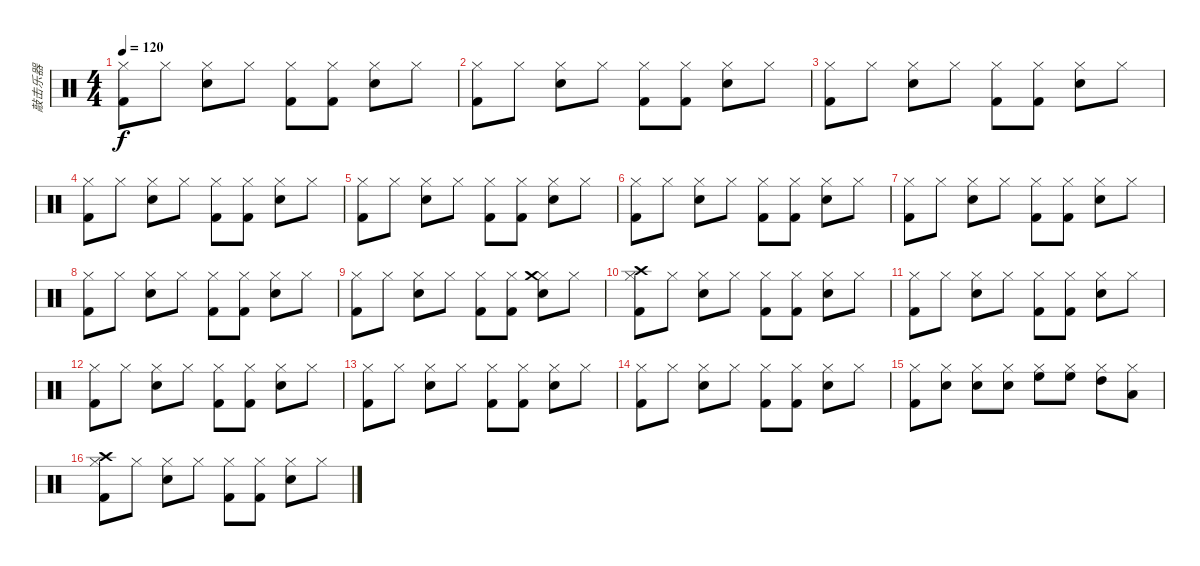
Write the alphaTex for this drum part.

\track ("敲击乐器" "敲击乐器") {instrument percussion}
\staff {score}
\articulation defaults
\ts (4 4)
\tempo 120
\clef neutral
\ks c
("Kick (hit) 2" "Hi-Hat (closed)").8{dy f} "Hi-Hat (closed)".8 ("Electric Snare (hit)" "Hi-Hat (closed)").8 "Hi-Hat (closed)".8 ("Kick (hit) 2" "Hi-Hat (closed)").8 ("Hi-Hat (closed)" "Kick (hit) 2").8 ("Electric Snare (hit)" "Hi-Hat (closed)").8 "Hi-Hat (closed)".8 |
("Kick (hit) 2" "Hi-Hat (closed)").8 "Hi-Hat (closed)".8 ("Electric Snare (hit)" "Hi-Hat (closed)").8 "Hi-Hat (closed)".8 ("Kick (hit) 2" "Hi-Hat (closed)").8 ("Hi-Hat (closed)" "Kick (hit) 2").8 ("Electric Snare (hit)" "Hi-Hat (closed)").8 "Hi-Hat (closed)".8 |
("Kick (hit) 2" "Hi-Hat (closed)").8 "Hi-Hat (closed)".8 ("Electric Snare (hit)" "Hi-Hat (closed)").8 "Hi-Hat (closed)".8 ("Kick (hit) 2" "Hi-Hat (closed)").8 ("Hi-Hat (closed)" "Kick (hit) 2").8 ("Electric Snare (hit)" "Hi-Hat (closed)").8 "Hi-Hat (closed)".8 |
("Kick (hit) 2" "Hi-Hat (closed)").8 "Hi-Hat (closed)".8 ("Electric Snare (hit)" "Hi-Hat (closed)").8 "Hi-Hat (closed)".8 ("Kick (hit) 2" "Hi-Hat (closed)").8 ("Hi-Hat (closed)" "Kick (hit) 2").8 ("Electric Snare (hit)" "Hi-Hat (closed)").8 "Hi-Hat (closed)".8 |
("Kick (hit) 2" "Hi-Hat (closed)").8 "Hi-Hat (closed)".8 ("Electric Snare (hit)" "Hi-Hat (closed)").8 "Hi-Hat (closed)".8 ("Kick (hit) 2" "Hi-Hat (closed)").8 ("Hi-Hat (closed)" "Kick (hit) 2").8 ("Electric Snare (hit)" "Hi-Hat (closed)").8 "Hi-Hat (closed)".8 |
("Kick (hit) 2" "Hi-Hat (closed)").8 "Hi-Hat (closed)".8 ("Electric Snare (hit)" "Hi-Hat (closed)").8 "Hi-Hat (closed)".8 ("Kick (hit) 2" "Hi-Hat (closed)").8 ("Hi-Hat (closed)" "Kick (hit) 2").8 ("Electric Snare (hit)" "Hi-Hat (closed)").8 "Hi-Hat (closed)".8 |
("Kick (hit) 2" "Hi-Hat (closed)").8 "Hi-Hat (closed)".8 ("Electric Snare (hit)" "Hi-Hat (closed)").8 "Hi-Hat (closed)".8 ("Kick (hit) 2" "Hi-Hat (closed)").8 ("Hi-Hat (closed)" "Kick (hit) 2").8 ("Electric Snare (hit)" "Hi-Hat (closed)").8 "Hi-Hat (closed)".8 |
("Kick (hit) 2" "Hi-Hat (closed)").8 "Hi-Hat (closed)".8 ("Electric Snare (hit)" "Hi-Hat (closed)").8 "Hi-Hat (closed)".8 ("Kick (hit) 2" "Hi-Hat (closed)").8 ("Hi-Hat (closed)" "Kick (hit) 2").8 ("Electric Snare (hit)" "Hi-Hat (closed)").8 "Hi-Hat (closed)".8 |
("Kick (hit) 2" "Hi-Hat (closed)").8 "Hi-Hat (closed)".8 ("Electric Snare (hit)" "Hi-Hat (closed)").8 "Hi-Hat (closed)".8 ("Kick (hit) 2" "Hi-Hat (closed)").8 ("Hi-Hat (closed)" "Kick (hit) 2").8 ("Electric Snare (hit)" "Hi-Hat (closed)" "Crash medium (hit)").8 "Hi-Hat (closed)".8 |
("Kick (hit) 2" "Crash high (hit)" "Hi-Hat (closed)").8 "Hi-Hat (closed)".8 ("Electric Snare (hit)" "Hi-Hat (closed)").8 "Hi-Hat (closed)".8 ("Kick (hit) 2" "Hi-Hat (closed)").8 ("Hi-Hat (closed)" "Kick (hit) 2").8 ("Electric Snare (hit)" "Hi-Hat (closed)").8 "Hi-Hat (closed)".8 |
("Kick (hit) 2" "Hi-Hat (closed)").8 "Hi-Hat (closed)".8 ("Electric Snare (hit)" "Hi-Hat (closed)").8 "Hi-Hat (closed)".8 ("Kick (hit) 2" "Hi-Hat (closed)").8 ("Hi-Hat (closed)" "Kick (hit) 2").8 ("Electric Snare (hit)" "Hi-Hat (closed)").8 "Hi-Hat (closed)".8 |
("Kick (hit) 2" "Hi-Hat (closed)").8 "Hi-Hat (closed)".8 ("Electric Snare (hit)" "Hi-Hat (closed)").8 "Hi-Hat (closed)".8 ("Kick (hit) 2" "Hi-Hat (closed)").8 ("Hi-Hat (closed)" "Kick (hit) 2").8 ("Electric Snare (hit)" "Hi-Hat (closed)").8 "Hi-Hat (closed)".8 |
("Kick (hit) 2" "Hi-Hat (closed)").8 "Hi-Hat (closed)".8 ("Electric Snare (hit)" "Hi-Hat (closed)").8 "Hi-Hat (closed)".8 ("Kick (hit) 2" "Hi-Hat (closed)").8 ("Hi-Hat (closed)" "Kick (hit) 2").8 ("Electric Snare (hit)" "Hi-Hat (closed)").8 "Hi-Hat (closed)".8 |
("Kick (hit) 2" "Hi-Hat (closed)").8 "Hi-Hat (closed)".8 ("Electric Snare (hit)" "Hi-Hat (closed)").8 "Hi-Hat (closed)".8 ("Kick (hit) 2" "Hi-Hat (closed)").8 ("Hi-Hat (closed)" "Kick (hit) 2").8 ("Electric Snare (hit)" "Hi-Hat (closed)").8 "Hi-Hat (closed)".8 |
("Kick (hit) 2" "Hi-Hat (closed)").8 ("Hi-Hat (closed)" "Electric Snare (hit)").8 ("Electric Snare (hit)" "Hi-Hat (closed)").8 ("Hi-Hat (closed)" "Electric Snare (hit)").8 ("High Floor Tom (hit)" "Hi-Hat (closed)").8 ("Hi-Hat (closed)" "High Floor Tom (hit)").8 ("High Tom (hit)" "Hi-Hat (closed)").8 ("Low Tom (hit)" "Hi-Hat (closed)").8 |
("Kick (hit) 2" "Crash high (hit)" "Hi-Hat (closed)").8 "Hi-Hat (closed)".8 ("Electric Snare (hit)" "Hi-Hat (closed)").8 "Hi-Hat (closed)".8 ("Kick (hit) 2" "Hi-Hat (closed)").8 ("Hi-Hat (closed)" "Kick (hit) 2").8 ("Electric Snare (hit)" "Hi-Hat (closed)").8 "Hi-Hat (closed)".8
